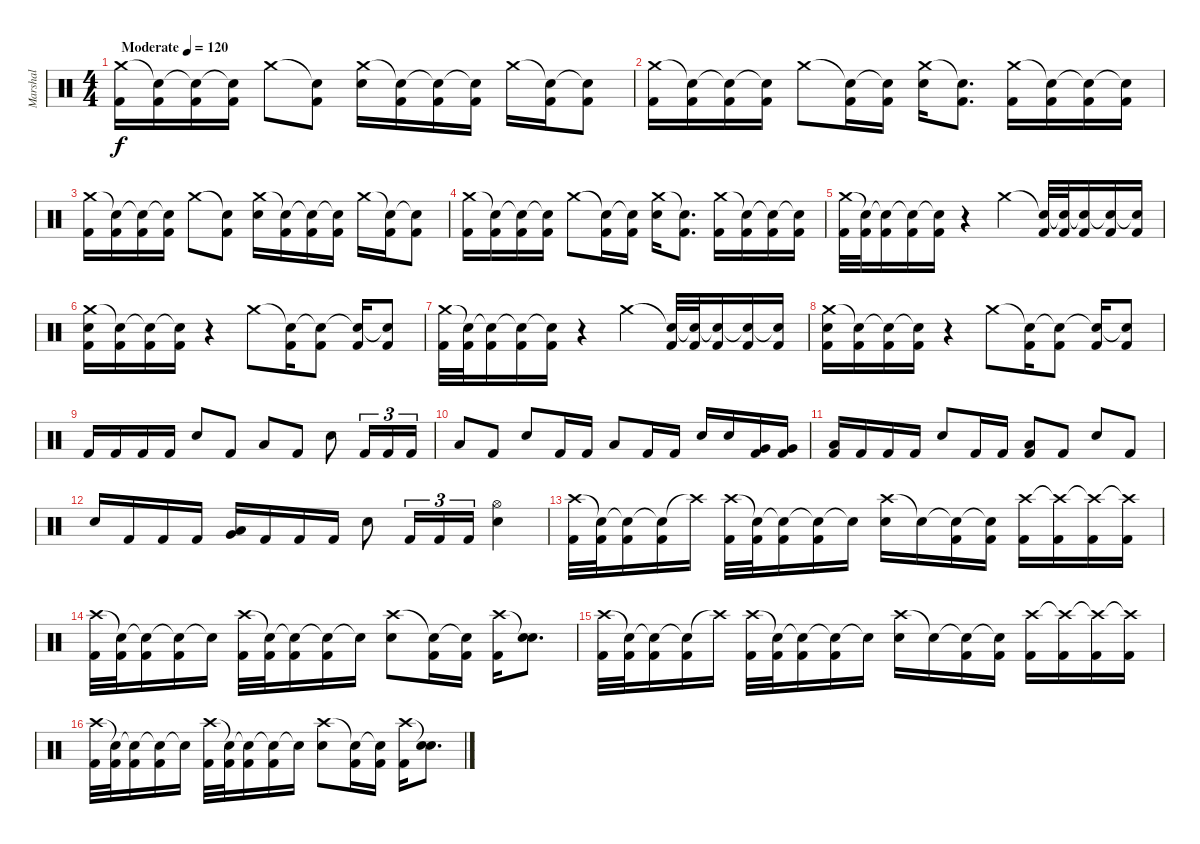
\track ("Marshal" "Marshal") {instrument percussion}
\staff {score}
\articulation defaults
\ts (4 4)
\tempo (120 "Moderate")
\clef neutral
\ks c
("Crash medium (hit)" "Kick (hit) 2").16{dy f} ("Snare (hit)"{t} "Kick (hit) 2").16 ("Snare (hit)"{t} "Kick (hit) 2").16 ("Snare (hit)"{t} "Kick (hit) 2").16 "Crash medium (hit)".8 ("Snare (hit)"{t} "Kick (hit) 2").8 ("Crash medium (hit)" "Electric Snare (hit)").16 ("Snare (hit)"{t} "Kick (hit) 2").16 ("Snare (hit)"{t} "Kick (hit) 2").16 ("Snare (hit)"{t} "Kick (hit) 2").16 "Crash medium (hit)".16 ("Snare (hit)"{t} "Kick (hit) 2").16 ("Snare (hit)"{t} "Kick (hit) 2").8 |
("Crash medium (hit)" "Kick (hit) 2").16 ("Snare (hit)"{t} "Kick (hit) 2").16 ("Snare (hit)"{t} "Kick (hit) 2").16 ("Snare (hit)"{t} "Kick (hit) 2").16 "Crash medium (hit)".8 ("Snare (hit)"{t} "Kick (hit) 2").16 ("Snare (hit)"{t} "Kick (hit) 2").16 ("Crash medium (hit)" "Electric Snare (hit)").16 ("Snare (hit)"{t} "Kick (hit) 2").8{d} ("Crash medium (hit)" "Kick (hit) 2").16 ("Snare (hit)"{t} "Kick (hit) 2").16 ("Snare (hit)"{t} "Kick (hit) 2").16 ("Snare (hit)"{t} "Kick (hit) 2").16 |
("Crash medium (hit)" "Kick (hit) 2").16 ("Snare (hit)"{t} "Kick (hit) 2").16 ("Snare (hit)"{t} "Kick (hit) 2").16 ("Snare (hit)"{t} "Kick (hit) 2").16 "Crash medium (hit)".8 ("Snare (hit)"{t} "Kick (hit) 2").8 ("Crash medium (hit)" "Electric Snare (hit)").16 ("Snare (hit)"{t} "Kick (hit) 2").16 ("Snare (hit)"{t} "Kick (hit) 2").16 ("Snare (hit)"{t} "Kick (hit) 2").16 "Crash medium (hit)".16 ("Snare (hit)"{t} "Kick (hit) 2").16 ("Snare (hit)"{t} "Kick (hit) 2").8 |
("Crash medium (hit)" "Kick (hit) 2").16 ("Snare (hit)"{t} "Kick (hit) 2").16 ("Snare (hit)"{t} "Kick (hit) 2").16 ("Snare (hit)"{t} "Kick (hit) 2").16 "Crash medium (hit)".8 ("Snare (hit)"{t} "Kick (hit) 2").16 ("Snare (hit)"{t} "Kick (hit) 2").16 ("Crash medium (hit)" "Electric Snare (hit)").16 ("Snare (hit)"{t} "Kick (hit) 2").8{d} ("Crash medium (hit)" "Kick (hit) 2").16 ("Snare (hit)"{t} "Kick (hit) 2").16 ("Snare (hit)"{t} "Kick (hit) 2").16 ("Snare (hit)"{t} "Kick (hit) 2").16 |
("Crash medium (hit)" "Kick (hit) 2").32 ("Snare (hit)"{t} "Kick (hit) 2").32 ("Snare (hit)"{t} "Kick (hit) 2").16 ("Snare (hit)"{t} "Kick (hit) 2").16 ("Snare (hit)"{t} "Kick (hit) 2").16 r.4 "Crash medium (hit)".4 ("Snare (hit)"{t} "Kick (hit) 2").32 ("Snare (hit)"{t} "Kick (hit) 2").32 ("Snare (hit)"{t} "Kick (hit) 2").16 ("Snare (hit)"{t} "Kick (hit) 2").16 ("Snare (hit)"{t} "Kick (hit) 2").16 |
("Crash medium (hit)" "Electric Snare (hit)" "Kick (hit) 2").16 ("Snare (hit)"{t} "Kick (hit) 2").16 ("Snare (hit)"{t} "Kick (hit) 2").16 ("Snare (hit)"{t} "Kick (hit) 2").16 r.4 "Crash medium (hit)".8 ("Snare (hit)"{t} "Kick (hit) 2").16 ("Snare (hit)"{t} "Kick (hit) 2").8 ("Snare (hit)"{t} "Kick (hit) 2").16 ("Snare (hit)"{t} "Kick (hit) 2").8 |
("Crash medium (hit)" "Kick (hit) 2").32 ("Snare (hit)"{t} "Kick (hit) 2").32 ("Snare (hit)"{t} "Kick (hit) 2").16 ("Snare (hit)"{t} "Kick (hit) 2").16 ("Snare (hit)"{t} "Kick (hit) 2").16 r.4 "Crash medium (hit)".4 ("Snare (hit)"{t} "Kick (hit) 2").32 ("Snare (hit)"{t} "Kick (hit) 2").32 ("Snare (hit)"{t} "Kick (hit) 2").16 ("Snare (hit)"{t} "Kick (hit) 2").16 ("Snare (hit)"{t} "Kick (hit) 2").16 |
("Crash medium (hit)" "Electric Snare (hit)" "Kick (hit) 2").16 ("Snare (hit)"{t} "Kick (hit) 2").16 ("Snare (hit)"{t} "Kick (hit) 2").16 ("Snare (hit)"{t} "Kick (hit) 2").16 r.4 "Crash medium (hit)".8 ("Snare (hit)"{t} "Kick (hit) 2").16 ("Snare (hit)"{t} "Kick (hit) 2").8 ("Snare (hit)"{t} "Kick (hit) 2").16 ("Snare (hit)"{t} "Kick (hit) 2").8 |
"Kick (hit) 2".16 "Kick (hit) 2".16 "Kick (hit) 2".16 "Kick (hit) 2".16 "Electric Snare (hit)".8 "Kick (hit) 2".8 "Low Floor Tom (hit)".8 "Kick (hit) 2".8 "Electric Snare (hit)".8 "Kick (hit) 2".16{tu (3 2)} "Kick (hit) 2".16{tu (3 2)} "Kick (hit) 2".16{tu (3 2)} |
"Low Floor Tom (hit)".8 "Kick (hit) 2".8 "Electric Snare (hit)".8 "Kick (hit) 2".16 "Kick (hit) 2".16 "Low Floor Tom (hit)".8 "Kick (hit) 2".16 "Kick (hit) 2".16 "Electric Snare (hit)".16 "Electric Snare (hit)".16 ("Very Low Tom (hit)" "Kick (hit) 2").16 ("Very Low Tom (hit)" "Kick (hit) 2").16 |
("Low Floor Tom (hit)" "Kick (hit) 2").16 "Kick (hit) 2".16 "Kick (hit) 2".16 "Kick (hit) 2".16 "Electric Snare (hit)".8 "Kick (hit) 2".16 "Kick (hit) 2".16 ("Low Floor Tom (hit)" "Kick (hit) 2").8 "Kick (hit) 2".8 "Electric Snare (hit)".8 "Kick (hit) 2".8 |
"Electric Snare (hit)".16 "Kick (hit) 2".16 "Kick (hit) 2".16 "Kick (hit) 2".16 ("Very Low Tom (hit)" "Low Floor Tom (hit)").16 "Kick (hit) 2".16 "Kick (hit) 2".16 "Kick (hit) 2".16 "Electric Snare (hit)".8 "Kick (hit) 2".16{tu (3 2)} "Kick (hit) 2".16{tu (3 2)} "Kick (hit) 2".16{tu (3 2)} ("Hi-Hat (open)" "Electric Snare (hit)").4 |
("Crash high (hit)" "Kick (hit) 2").32 ("Snare (hit)"{t} "Kick (hit) 2").32 ("Snare (hit)"{t} "Kick (hit) 2").16 ("Snare (hit)"{t} "Kick (hit) 2").16 "Crash high (hit)"{t}.16 ("Crash high (hit)" "Kick (hit) 2").32 ("Snare (hit)"{t} "Kick (hit) 2").32 ("Snare (hit)"{t} "Kick (hit) 2").16 ("Snare (hit)"{t} "Kick (hit) 2").16 "Snare (hit)"{t}.16 ("Crash high (hit)" "Electric Snare (hit)").16 "Snare (hit)"{t}.16 ("Snare (hit)"{t} "Kick (hit) 2").16 ("Snare (hit)"{t} "Kick (hit) 2").16 ("Crash high (hit)" "Kick (hit) 2").16 ("Crash high (hit)"{t} "Kick (hit) 2").16 ("Crash high (hit)"{t} "Kick (hit) 2").16 ("Crash high (hit)"{t} "Kick (hit) 2").16 |
("Crash high (hit)" "Kick (hit) 2").32 ("Snare (hit)"{t} "Kick (hit) 2").32 ("Snare (hit)"{t} "Kick (hit) 2").16 ("Snare (hit)"{t} "Kick (hit) 2").16 "Snare (hit)"{t}.16 ("Crash high (hit)" "Kick (hit) 2").32 ("Snare (hit)"{t} "Kick (hit) 2").32 ("Snare (hit)"{t} "Kick (hit) 2").16 ("Snare (hit)"{t} "Kick (hit) 2").16 "Snare (hit)"{t}.16 ("Crash high (hit)" "Electric Snare (hit)").8 ("Snare (hit)"{t} "Kick (hit) 2").16 ("Snare (hit)"{t} "Kick (hit) 2").16 ("Crash high (hit)" "Kick (hit) 2").16 ("Snare (hit)"{t} "Electric Snare (hit)").8{d} |
("Crash high (hit)" "Kick (hit) 2").32 ("Snare (hit)"{t} "Kick (hit) 2").32 ("Snare (hit)"{t} "Kick (hit) 2").16 ("Snare (hit)"{t} "Kick (hit) 2").16 "Crash high (hit)"{t}.16 ("Crash high (hit)" "Kick (hit) 2").32 ("Snare (hit)"{t} "Kick (hit) 2").32 ("Snare (hit)"{t} "Kick (hit) 2").16 ("Snare (hit)"{t} "Kick (hit) 2").16 "Snare (hit)"{t}.16 ("Crash high (hit)" "Electric Snare (hit)").16 "Snare (hit)"{t}.16 ("Snare (hit)"{t} "Kick (hit) 2").16 ("Snare (hit)"{t} "Kick (hit) 2").16 ("Crash high (hit)" "Kick (hit) 2").16 ("Crash high (hit)"{t} "Kick (hit) 2").16 ("Crash high (hit)"{t} "Kick (hit) 2").16 ("Crash high (hit)"{t} "Kick (hit) 2").16 |
("Crash high (hit)" "Kick (hit) 2").32 ("Snare (hit)"{t} "Kick (hit) 2").32 ("Snare (hit)"{t} "Kick (hit) 2").16 ("Snare (hit)"{t} "Kick (hit) 2").16 "Snare (hit)"{t}.16 ("Crash high (hit)" "Kick (hit) 2").32 ("Snare (hit)"{t} "Kick (hit) 2").32 ("Snare (hit)"{t} "Kick (hit) 2").16 ("Snare (hit)"{t} "Kick (hit) 2").16 "Snare (hit)"{t}.16 ("Crash high (hit)" "Electric Snare (hit)").8 ("Snare (hit)"{t} "Kick (hit) 2").16 ("Snare (hit)"{t} "Kick (hit) 2").16 ("Crash high (hit)" "Kick (hit) 2").16 ("Snare (hit)"{t} "Electric Snare (hit)").8{d}
